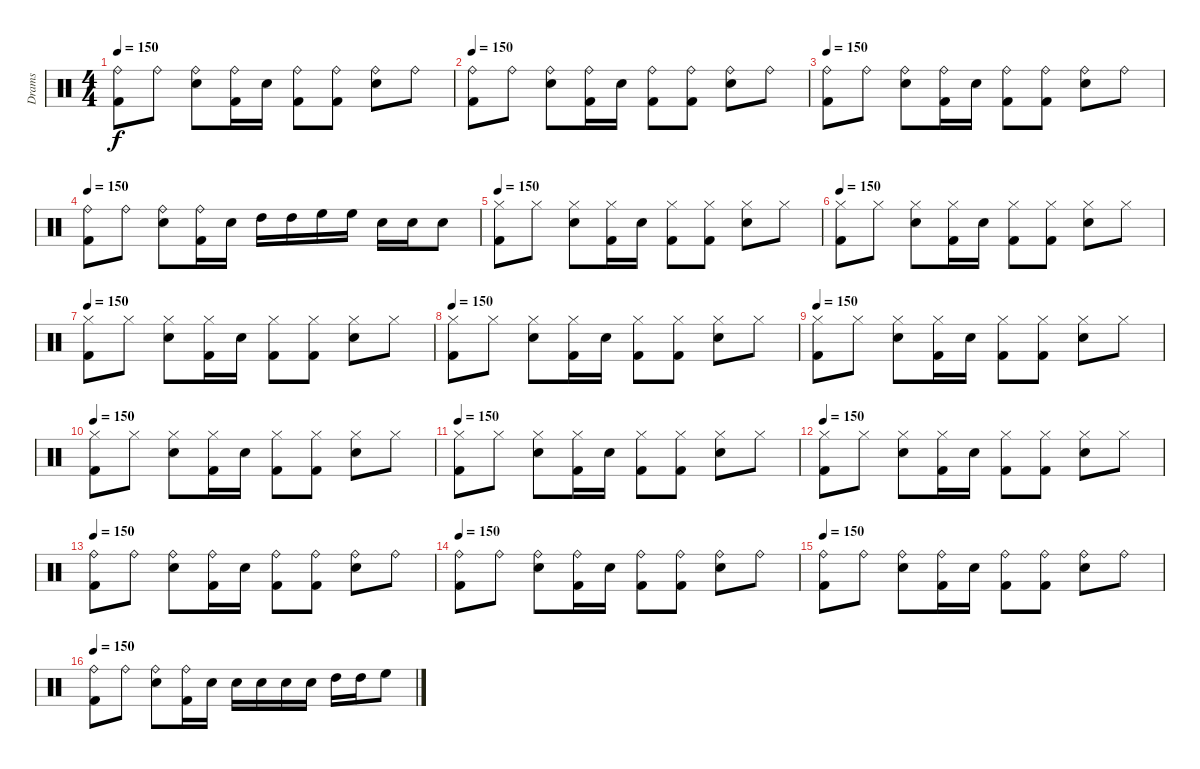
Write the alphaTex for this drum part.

\track ("Drams" "Drams") {instrument percussion}
\staff {score}
\articulation defaults
\ts (4 4)
\tempo 150
\clef neutral
\ks aminor
("Kick (hit) 2" "Ride (bell)").8{dy f} "Ride (bell)".8 ("Electric Snare (hit)" "Ride (bell)").8 ("Kick (hit) 2" "Ride (bell)").16 "Electric Snare (hit)".16 ("Kick (hit) 2" "Ride (bell)").8 ("Kick (hit) 2" "Ride (bell)").8 ("Electric Snare (hit)" "Ride (bell)").8 "Ride (bell)".8 |
\tempo 150
("Kick (hit) 2" "Ride (bell)").8 "Ride (bell)".8 ("Electric Snare (hit)" "Ride (bell)").8 ("Kick (hit) 2" "Ride (bell)").16 "Electric Snare (hit)".16 ("Kick (hit) 2" "Ride (bell)").8 ("Kick (hit) 2" "Ride (bell)").8 ("Electric Snare (hit)" "Ride (bell)").8 "Ride (bell)".8 |
\tempo 150
("Kick (hit) 2" "Ride (bell)").8 "Ride (bell)".8 ("Electric Snare (hit)" "Ride (bell)").8 ("Kick (hit) 2" "Ride (bell)").16 "Electric Snare (hit)".16 ("Kick (hit) 2" "Ride (bell)").8 ("Kick (hit) 2" "Ride (bell)").8 ("Electric Snare (hit)" "Ride (bell)").8 "Ride (bell)".8 |
\tempo 150
("Kick (hit) 2" "Ride (bell)").8 "Ride (bell)".8 ("Electric Snare (hit)" "Ride (bell)").8 ("Kick (hit) 2" "Ride (bell)").16 "Electric Snare (hit)".16 "High Tom (hit)".16 "High Tom (hit)".16 "High Floor Tom (hit)".16 "High Floor Tom (hit)".16 "Electric Snare (hit)".16 "Electric Snare (hit)".16 "Electric Snare (hit)".8 |
\tempo 150
("Kick (hit) 2" "Hi-Hat (closed)").8 "Hi-Hat (closed)".8 ("Electric Snare (hit)" "Hi-Hat (closed)").8 ("Kick (hit) 2" "Hi-Hat (closed)").16 "Electric Snare (hit)".16 ("Kick (hit) 2" "Hi-Hat (closed)").8 ("Kick (hit) 2" "Hi-Hat (closed)").8 ("Electric Snare (hit)" "Hi-Hat (closed)").8 "Hi-Hat (closed)".8 |
\tempo 150
("Kick (hit) 2" "Hi-Hat (closed)").8 "Hi-Hat (closed)".8 ("Electric Snare (hit)" "Hi-Hat (closed)").8 ("Kick (hit) 2" "Hi-Hat (closed)").16 "Electric Snare (hit)".16 ("Kick (hit) 2" "Hi-Hat (closed)").8 ("Kick (hit) 2" "Hi-Hat (closed)").8 ("Electric Snare (hit)" "Hi-Hat (closed)").8 "Hi-Hat (closed)".8 |
\tempo 150
("Kick (hit) 2" "Hi-Hat (closed)").8 "Hi-Hat (closed)".8 ("Electric Snare (hit)" "Hi-Hat (closed)").8 ("Kick (hit) 2" "Hi-Hat (closed)").16 "Electric Snare (hit)".16 ("Kick (hit) 2" "Hi-Hat (closed)").8 ("Kick (hit) 2" "Hi-Hat (closed)").8 ("Electric Snare (hit)" "Hi-Hat (closed)").8 "Hi-Hat (closed)".8 |
\tempo 150
("Kick (hit) 2" "Hi-Hat (closed)").8 "Hi-Hat (closed)".8 ("Electric Snare (hit)" "Hi-Hat (closed)").8 ("Kick (hit) 2" "Hi-Hat (closed)").16 "Electric Snare (hit)".16 ("Kick (hit) 2" "Hi-Hat (closed)").8 ("Kick (hit) 2" "Hi-Hat (closed)").8 ("Electric Snare (hit)" "Hi-Hat (closed)").8 "Hi-Hat (closed)".8 |
\tempo 150
("Kick (hit) 2" "Hi-Hat (closed)").8 "Hi-Hat (closed)".8 ("Electric Snare (hit)" "Hi-Hat (closed)").8 ("Kick (hit) 2" "Hi-Hat (closed)").16 "Electric Snare (hit)".16 ("Kick (hit) 2" "Hi-Hat (closed)").8 ("Kick (hit) 2" "Hi-Hat (closed)").8 ("Electric Snare (hit)" "Hi-Hat (closed)").8 "Hi-Hat (closed)".8 |
\tempo 150
("Kick (hit) 2" "Hi-Hat (closed)").8 "Hi-Hat (closed)".8 ("Electric Snare (hit)" "Hi-Hat (closed)").8 ("Kick (hit) 2" "Hi-Hat (closed)").16 "Electric Snare (hit)".16 ("Kick (hit) 2" "Hi-Hat (closed)").8 ("Kick (hit) 2" "Hi-Hat (closed)").8 ("Electric Snare (hit)" "Hi-Hat (closed)").8 "Hi-Hat (closed)".8 |
\tempo 150
("Kick (hit) 2" "Hi-Hat (closed)").8 "Hi-Hat (closed)".8 ("Electric Snare (hit)" "Hi-Hat (closed)").8 ("Kick (hit) 2" "Hi-Hat (closed)").16 "Electric Snare (hit)".16 ("Kick (hit) 2" "Hi-Hat (closed)").8 ("Kick (hit) 2" "Hi-Hat (closed)").8 ("Electric Snare (hit)" "Hi-Hat (closed)").8 "Hi-Hat (closed)".8 |
\tempo 150
("Kick (hit) 2" "Hi-Hat (closed)").8 "Hi-Hat (closed)".8 ("Electric Snare (hit)" "Hi-Hat (closed)").8 ("Kick (hit) 2" "Hi-Hat (closed)").16 "Electric Snare (hit)".16 ("Kick (hit) 2" "Hi-Hat (closed)").8 ("Kick (hit) 2" "Hi-Hat (closed)").8 ("Electric Snare (hit)" "Hi-Hat (closed)").8 "Hi-Hat (closed)".8 |
\tempo 150
("Kick (hit) 2" "Ride (bell)").8 "Ride (bell)".8 ("Electric Snare (hit)" "Ride (bell)").8 ("Kick (hit) 2" "Ride (bell)").16 "Electric Snare (hit)".16 ("Kick (hit) 2" "Ride (bell)").8 ("Kick (hit) 2" "Ride (bell)").8 ("Electric Snare (hit)" "Ride (bell)").8 "Ride (bell)".8 |
\tempo 150
("Kick (hit) 2" "Ride (bell)").8 "Ride (bell)".8 ("Electric Snare (hit)" "Ride (bell)").8 ("Kick (hit) 2" "Ride (bell)").16 "Electric Snare (hit)".16 ("Kick (hit) 2" "Ride (bell)").8 ("Kick (hit) 2" "Ride (bell)").8 ("Electric Snare (hit)" "Ride (bell)").8 "Ride (bell)".8 |
\tempo 150
("Kick (hit) 2" "Ride (bell)").8 "Ride (bell)".8 ("Electric Snare (hit)" "Ride (bell)").8 ("Kick (hit) 2" "Ride (bell)").16 "Electric Snare (hit)".16 ("Kick (hit) 2" "Ride (bell)").8 ("Kick (hit) 2" "Ride (bell)").8 ("Electric Snare (hit)" "Ride (bell)").8 "Ride (bell)".8 |
\tempo 150
("Kick (hit) 2" "Ride (bell)").8 "Ride (bell)".8 ("Electric Snare (hit)" "Ride (bell)").8 ("Kick (hit) 2" "Ride (bell)").16 "Electric Snare (hit)".16 "Electric Snare (hit)".16 "Electric Snare (hit)".16 "Electric Snare (hit)".16 "Electric Snare (hit)".16 "High Tom (hit)".16 "High Tom (hit)".16 "High Floor Tom (hit)".8
